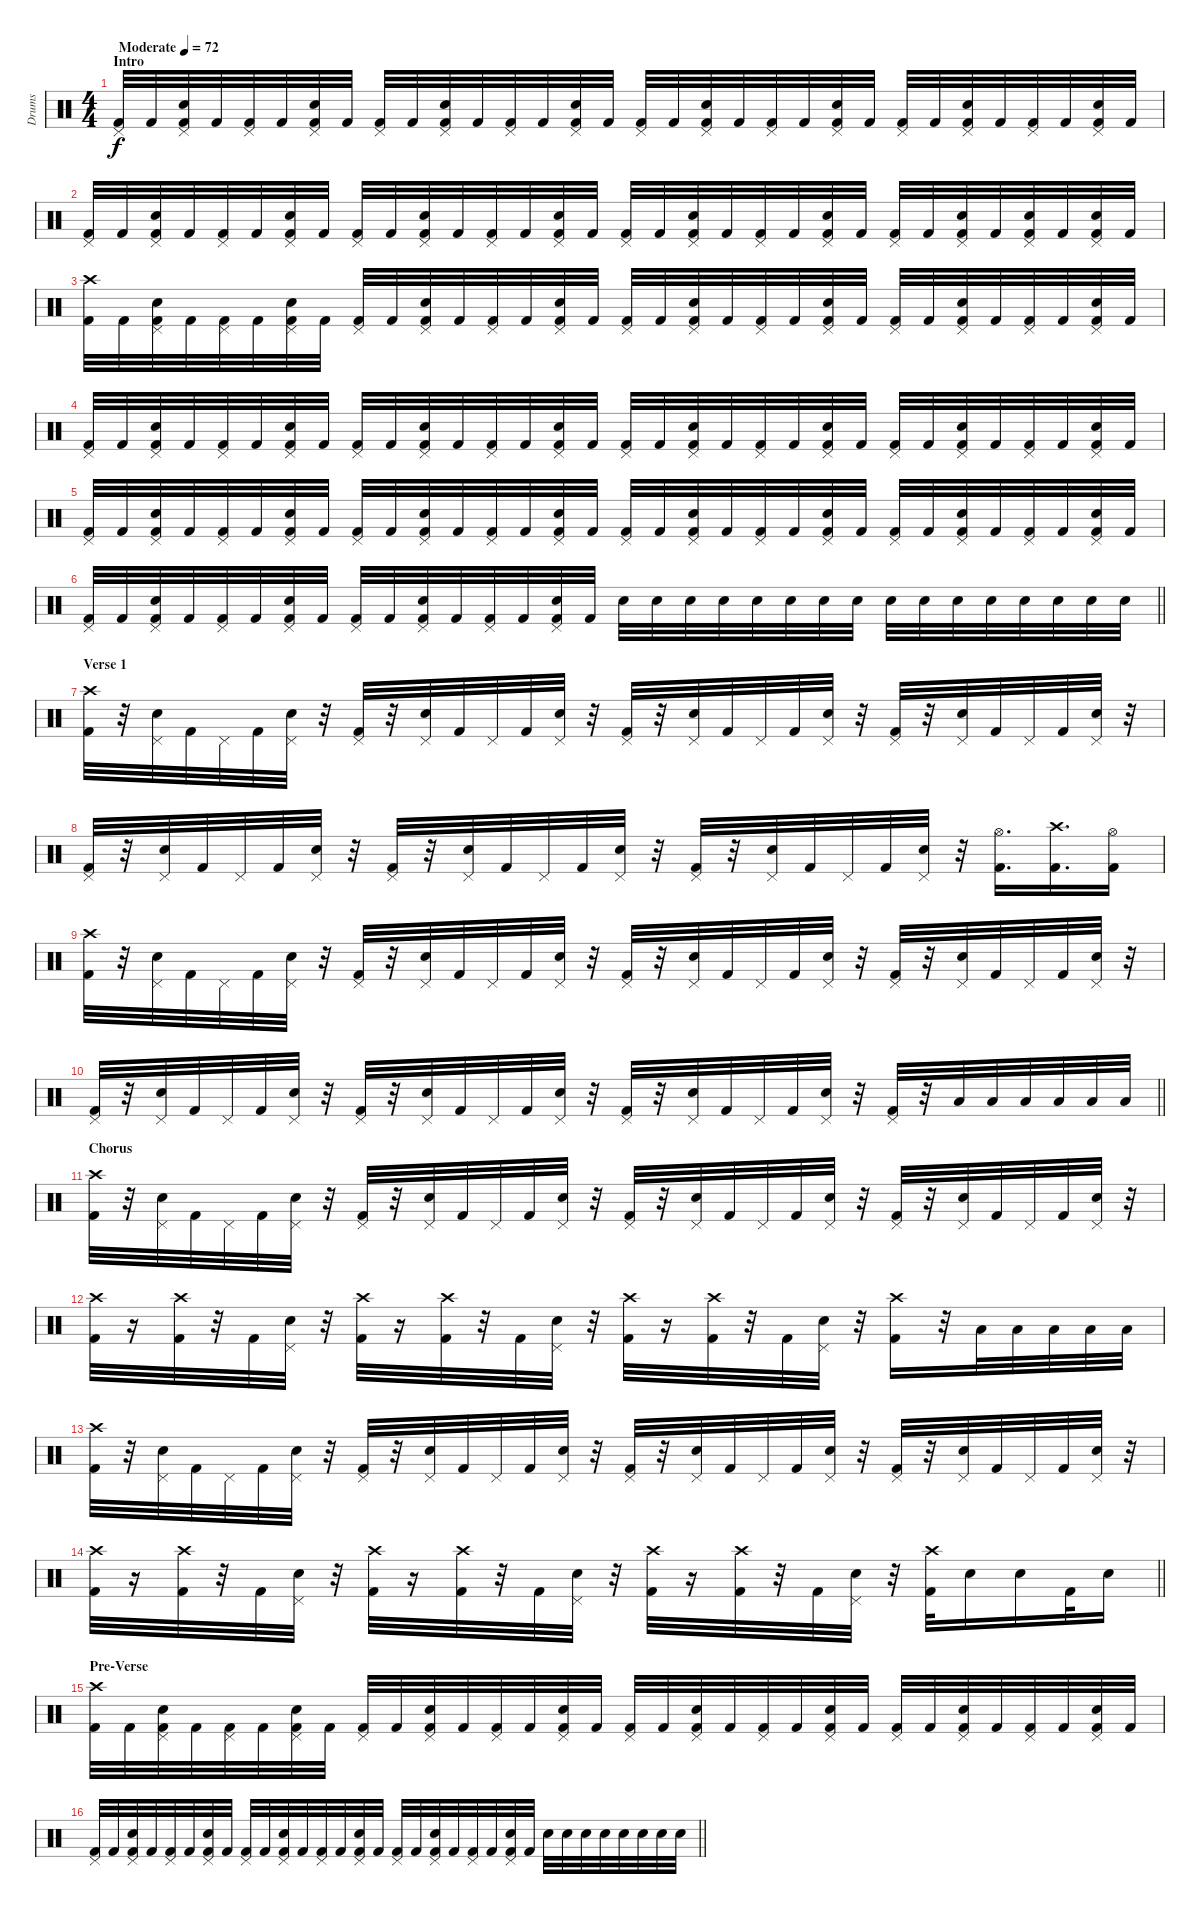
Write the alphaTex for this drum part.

\track ("Drums" "Drums") {instrument percussion}
\staff {score}
\articulation defaults
\ts (4 4)
\section ("" "Intro")
\tempo (72 "Moderate")
\clef neutral
\ks c
("Pedal Hi-Hat (hit)" "Kick (hit) 2").32{dy f} "Kick (hit) 2".32 ("Pedal Hi-Hat (hit)" "Snare (hit) 2" "Kick (hit) 2").32 "Kick (hit) 2".32 ("Pedal Hi-Hat (hit)" "Kick (hit) 2").32 "Kick (hit) 2".32 ("Pedal Hi-Hat (hit)" "Snare (hit) 2" "Kick (hit) 2").32 "Kick (hit) 2".32 ("Pedal Hi-Hat (hit)" "Kick (hit) 2").32 "Kick (hit) 2".32 ("Pedal Hi-Hat (hit)" "Snare (hit) 2" "Kick (hit) 2").32 "Kick (hit) 2".32 ("Pedal Hi-Hat (hit)" "Kick (hit) 2").32 "Kick (hit) 2".32 ("Pedal Hi-Hat (hit)" "Snare (hit) 2" "Kick (hit) 2").32 "Kick (hit) 2".32 ("Pedal Hi-Hat (hit)" "Kick (hit) 2").32 "Kick (hit) 2".32 ("Pedal Hi-Hat (hit)" "Snare (hit) 2" "Kick (hit) 2").32 "Kick (hit) 2".32 ("Pedal Hi-Hat (hit)" "Kick (hit) 2").32 "Kick (hit) 2".32 ("Pedal Hi-Hat (hit)" "Snare (hit) 2" "Kick (hit) 2").32 "Kick (hit) 2".32 ("Pedal Hi-Hat (hit)" "Kick (hit) 2").32 "Kick (hit) 2".32 ("Pedal Hi-Hat (hit)" "Snare (hit) 2" "Kick (hit) 2").32 "Kick (hit) 2".32 ("Pedal Hi-Hat (hit)" "Kick (hit) 2").32 "Kick (hit) 2".32 ("Pedal Hi-Hat (hit)" "Snare (hit) 2" "Kick (hit) 2").32 "Kick (hit) 2".32 |
("Pedal Hi-Hat (hit)" "Kick (hit) 2").32 "Kick (hit) 2".32 ("Pedal Hi-Hat (hit)" "Snare (hit) 2" "Kick (hit) 2").32 "Kick (hit) 2".32 ("Pedal Hi-Hat (hit)" "Kick (hit) 2").32 "Kick (hit) 2".32 ("Pedal Hi-Hat (hit)" "Snare (hit) 2" "Kick (hit) 2").32 "Kick (hit) 2".32 ("Pedal Hi-Hat (hit)" "Kick (hit) 2").32 "Kick (hit) 2".32 ("Pedal Hi-Hat (hit)" "Snare (hit) 2" "Kick (hit) 2").32 "Kick (hit) 2".32 ("Pedal Hi-Hat (hit)" "Kick (hit) 2").32 "Kick (hit) 2".32 ("Pedal Hi-Hat (hit)" "Snare (hit) 2" "Kick (hit) 2").32 "Kick (hit) 2".32 ("Pedal Hi-Hat (hit)" "Kick (hit) 2").32 "Kick (hit) 2".32 ("Pedal Hi-Hat (hit)" "Snare (hit) 2" "Kick (hit) 2").32 "Kick (hit) 2".32 ("Pedal Hi-Hat (hit)" "Kick (hit) 2").32 "Kick (hit) 2".32 ("Pedal Hi-Hat (hit)" "Snare (hit) 2" "Kick (hit) 2").32 "Kick (hit) 2".32 ("Pedal Hi-Hat (hit)" "Kick (hit) 2").32 "Kick (hit) 2".32 ("Pedal Hi-Hat (hit)" "Snare (hit) 2" "Kick (hit) 2").32 "Kick (hit) 2".32 ("Pedal Hi-Hat (hit)" "Snare (hit) 2" "Kick (hit) 2").32 "Kick (hit) 2".32 ("Pedal Hi-Hat (hit)" "Snare (hit) 2" "Kick (hit) 2").32 "Kick (hit) 2".32 |
("Crash high (hit)" "Kick (hit) 2").32 "Kick (hit) 2".32 ("Pedal Hi-Hat (hit)" "Snare (hit) 2" "Kick (hit) 2").32 "Kick (hit) 2".32 ("Pedal Hi-Hat (hit)" "Kick (hit) 2").32 "Kick (hit) 2".32 ("Pedal Hi-Hat (hit)" "Snare (hit) 2" "Kick (hit) 2").32 "Kick (hit) 2".32 ("Pedal Hi-Hat (hit)" "Kick (hit) 2").32 "Kick (hit) 2".32 ("Pedal Hi-Hat (hit)" "Snare (hit) 2" "Kick (hit) 2").32 "Kick (hit) 2".32 ("Pedal Hi-Hat (hit)" "Kick (hit) 2").32 "Kick (hit) 2".32 ("Pedal Hi-Hat (hit)" "Snare (hit) 2" "Kick (hit) 2").32 "Kick (hit) 2".32 ("Pedal Hi-Hat (hit)" "Kick (hit) 2").32 "Kick (hit) 2".32 ("Pedal Hi-Hat (hit)" "Snare (hit) 2" "Kick (hit) 2").32 "Kick (hit) 2".32 ("Pedal Hi-Hat (hit)" "Kick (hit) 2").32 "Kick (hit) 2".32 ("Pedal Hi-Hat (hit)" "Snare (hit) 2" "Kick (hit) 2").32 "Kick (hit) 2".32 ("Pedal Hi-Hat (hit)" "Kick (hit) 2").32 "Kick (hit) 2".32 ("Pedal Hi-Hat (hit)" "Snare (hit) 2" "Kick (hit) 2").32 "Kick (hit) 2".32 ("Pedal Hi-Hat (hit)" "Kick (hit) 2").32 "Kick (hit) 2".32 ("Pedal Hi-Hat (hit)" "Snare (hit) 2" "Kick (hit) 2").32 "Kick (hit) 2".32 |
("Pedal Hi-Hat (hit)" "Kick (hit) 2").32 "Kick (hit) 2".32 ("Pedal Hi-Hat (hit)" "Snare (hit) 2" "Kick (hit) 2").32 "Kick (hit) 2".32 ("Pedal Hi-Hat (hit)" "Kick (hit) 2").32 "Kick (hit) 2".32 ("Pedal Hi-Hat (hit)" "Snare (hit) 2" "Kick (hit) 2").32 "Kick (hit) 2".32 ("Pedal Hi-Hat (hit)" "Kick (hit) 2").32 "Kick (hit) 2".32 ("Pedal Hi-Hat (hit)" "Snare (hit) 2" "Kick (hit) 2").32 "Kick (hit) 2".32 ("Pedal Hi-Hat (hit)" "Kick (hit) 2").32 "Kick (hit) 2".32 ("Pedal Hi-Hat (hit)" "Snare (hit) 2" "Kick (hit) 2").32 "Kick (hit) 2".32 ("Pedal Hi-Hat (hit)" "Kick (hit) 2").32 "Kick (hit) 2".32 ("Pedal Hi-Hat (hit)" "Snare (hit) 2" "Kick (hit) 2").32 "Kick (hit) 2".32 ("Pedal Hi-Hat (hit)" "Kick (hit) 2").32 "Kick (hit) 2".32 ("Pedal Hi-Hat (hit)" "Snare (hit) 2" "Kick (hit) 2").32 "Kick (hit) 2".32 ("Pedal Hi-Hat (hit)" "Kick (hit) 2").32 "Kick (hit) 2".32 ("Pedal Hi-Hat (hit)" "Snare (hit) 2" "Kick (hit) 2").32 "Kick (hit) 2".32 ("Pedal Hi-Hat (hit)" "Kick (hit) 2").32 "Kick (hit) 2".32 ("Pedal Hi-Hat (hit)" "Snare (hit) 2" "Kick (hit) 2").32 "Kick (hit) 2".32 |
("Pedal Hi-Hat (hit)" "Kick (hit) 2").32 "Kick (hit) 2".32 ("Pedal Hi-Hat (hit)" "Snare (hit) 2" "Kick (hit) 2").32 "Kick (hit) 2".32 ("Pedal Hi-Hat (hit)" "Kick (hit) 2").32 "Kick (hit) 2".32 ("Pedal Hi-Hat (hit)" "Snare (hit) 2" "Kick (hit) 2").32 "Kick (hit) 2".32 ("Pedal Hi-Hat (hit)" "Kick (hit) 2").32 "Kick (hit) 2".32 ("Pedal Hi-Hat (hit)" "Snare (hit) 2" "Kick (hit) 2").32 "Kick (hit) 2".32 ("Pedal Hi-Hat (hit)" "Kick (hit) 2").32 "Kick (hit) 2".32 ("Pedal Hi-Hat (hit)" "Snare (hit) 2" "Kick (hit) 2").32 "Kick (hit) 2".32 ("Pedal Hi-Hat (hit)" "Kick (hit) 2").32 "Kick (hit) 2".32 ("Pedal Hi-Hat (hit)" "Snare (hit) 2" "Kick (hit) 2").32 "Kick (hit) 2".32 ("Pedal Hi-Hat (hit)" "Kick (hit) 2").32 "Kick (hit) 2".32 ("Pedal Hi-Hat (hit)" "Snare (hit) 2" "Kick (hit) 2").32 "Kick (hit) 2".32 ("Pedal Hi-Hat (hit)" "Kick (hit) 2").32 "Kick (hit) 2".32 ("Pedal Hi-Hat (hit)" "Snare (hit) 2" "Kick (hit) 2").32 "Kick (hit) 2".32 ("Pedal Hi-Hat (hit)" "Kick (hit) 2").32 "Kick (hit) 2".32 ("Pedal Hi-Hat (hit)" "Snare (hit) 2" "Kick (hit) 2").32 "Kick (hit) 2".32 |
\barLineRight lightlight
("Pedal Hi-Hat (hit)" "Kick (hit) 2").32 "Kick (hit) 2".32 ("Pedal Hi-Hat (hit)" "Snare (hit) 2" "Kick (hit) 2").32 "Kick (hit) 2".32 ("Pedal Hi-Hat (hit)" "Kick (hit) 2").32 "Kick (hit) 2".32 ("Pedal Hi-Hat (hit)" "Snare (hit) 2" "Kick (hit) 2").32 "Kick (hit) 2".32 ("Pedal Hi-Hat (hit)" "Kick (hit) 2").32 "Kick (hit) 2".32 ("Pedal Hi-Hat (hit)" "Snare (hit) 2" "Kick (hit) 2").32 "Kick (hit) 2".32 ("Pedal Hi-Hat (hit)" "Kick (hit) 2").32 "Kick (hit) 2".32 ("Pedal Hi-Hat (hit)" "Snare (hit) 2" "Kick (hit) 2").32 "Kick (hit) 2".32 "Snare (hit) 2".32 "Snare (hit) 2".32 "Snare (hit) 2".32 "Snare (hit) 2".32 "Snare (hit) 2".32 "Snare (hit) 2".32 "Snare (hit) 2".32 "Snare (hit) 2".32 "Snare (hit) 2".32 "Snare (hit) 2".32 "Snare (hit) 2".32 "Snare (hit) 2".32 "Snare (hit) 2".32 "Snare (hit) 2".32 "Snare (hit) 2".32 "Snare (hit) 2".32 |
\section ("" "Verse 1")
("Crash high (hit)" "Kick (hit) 2").32 r.32 ("Pedal Hi-Hat (hit)" "Snare (hit) 2").32 "Kick (hit) 2".32 "Pedal Hi-Hat (hit)".32 "Kick (hit) 2".32 ("Pedal Hi-Hat (hit)" "Snare (hit) 2").32 r.32 ("Pedal Hi-Hat (hit)" "Kick (hit) 2").32 r.32 ("Pedal Hi-Hat (hit)" "Snare (hit) 2").32 "Kick (hit) 2".32 "Pedal Hi-Hat (hit)".32 "Kick (hit) 2".32 ("Pedal Hi-Hat (hit)" "Snare (hit) 2").32 r.32 ("Pedal Hi-Hat (hit)" "Kick (hit) 2").32 r.32 ("Pedal Hi-Hat (hit)" "Snare (hit) 2").32 "Kick (hit) 2".32 "Pedal Hi-Hat (hit)".32 "Kick (hit) 2".32 ("Pedal Hi-Hat (hit)" "Snare (hit) 2").32 r.32 ("Pedal Hi-Hat (hit)" "Kick (hit) 2").32 r.32 ("Pedal Hi-Hat (hit)" "Snare (hit) 2").32 "Kick (hit) 2".32 "Pedal Hi-Hat (hit)".32 "Kick (hit) 2".32 ("Pedal Hi-Hat (hit)" "Snare (hit) 2").32 r.32 |
("Pedal Hi-Hat (hit)" "Kick (hit) 2").32 r.32 ("Pedal Hi-Hat (hit)" "Snare (hit) 2").32 "Kick (hit) 2".32 "Pedal Hi-Hat (hit)".32 "Kick (hit) 2".32 ("Pedal Hi-Hat (hit)" "Snare (hit) 2").32 r.32 ("Pedal Hi-Hat (hit)" "Kick (hit) 2").32 r.32 ("Pedal Hi-Hat (hit)" "Snare (hit) 2").32 "Kick (hit) 2".32 "Pedal Hi-Hat (hit)".32 "Kick (hit) 2".32 ("Pedal Hi-Hat (hit)" "Snare (hit) 2").32 r.32 ("Pedal Hi-Hat (hit)" "Kick (hit) 2").32 r.32 ("Pedal Hi-Hat (hit)" "Snare (hit) 2").32 "Kick (hit) 2".32 "Pedal Hi-Hat (hit)".32 "Kick (hit) 2".32 ("Pedal Hi-Hat (hit)" "Snare (hit) 2").32 r.32 ("Hi-Hat (open)" "Kick (hit) 2").16{d} ("Crash high (hit)" "Kick (hit) 2").16{d} ("Hi-Hat (open)" "Kick (hit) 2").16 |
("Crash high (hit)" "Kick (hit) 2").32 r.32 ("Pedal Hi-Hat (hit)" "Snare (hit) 2").32 "Kick (hit) 2".32 "Pedal Hi-Hat (hit)".32 "Kick (hit) 2".32 ("Pedal Hi-Hat (hit)" "Snare (hit) 2").32 r.32 ("Pedal Hi-Hat (hit)" "Kick (hit) 2").32 r.32 ("Pedal Hi-Hat (hit)" "Snare (hit) 2").32 "Kick (hit) 2".32 "Pedal Hi-Hat (hit)".32 "Kick (hit) 2".32 ("Pedal Hi-Hat (hit)" "Snare (hit) 2").32 r.32 ("Pedal Hi-Hat (hit)" "Kick (hit) 2").32 r.32 ("Pedal Hi-Hat (hit)" "Snare (hit) 2").32 "Kick (hit) 2".32 "Pedal Hi-Hat (hit)".32 "Kick (hit) 2".32 ("Pedal Hi-Hat (hit)" "Snare (hit) 2").32 r.32 ("Pedal Hi-Hat (hit)" "Kick (hit) 2").32 r.32 ("Pedal Hi-Hat (hit)" "Snare (hit) 2").32 "Kick (hit) 2".32 "Pedal Hi-Hat (hit)".32 "Kick (hit) 2".32 ("Pedal Hi-Hat (hit)" "Snare (hit) 2").32 r.32 |
\barLineRight lightlight
("Pedal Hi-Hat (hit)" "Kick (hit) 2").32 r.32 ("Pedal Hi-Hat (hit)" "Snare (hit) 2").32 "Kick (hit) 2".32 "Pedal Hi-Hat (hit)".32 "Kick (hit) 2".32 ("Pedal Hi-Hat (hit)" "Snare (hit) 2").32 r.32 ("Pedal Hi-Hat (hit)" "Kick (hit) 2").32 r.32 ("Pedal Hi-Hat (hit)" "Snare (hit) 2").32 "Kick (hit) 2".32 "Pedal Hi-Hat (hit)".32 "Kick (hit) 2".32 ("Pedal Hi-Hat (hit)" "Snare (hit) 2").32 r.32 ("Pedal Hi-Hat (hit)" "Kick (hit) 2").32 r.32 ("Pedal Hi-Hat (hit)" "Snare (hit) 2").32 "Kick (hit) 2".32 "Pedal Hi-Hat (hit)".32 "Kick (hit) 2".32 ("Pedal Hi-Hat (hit)" "Snare (hit) 2").32 r.32 ("Pedal Hi-Hat (hit)" "Kick (hit) 2").32 r.32 "Low Tom (hit)".32 "Low Tom (hit)".32 "Low Tom (hit)".32 "Low Tom (hit)".32 "Low Tom (hit)".32 "Low Tom (hit)".32 |
\section ("" "Chorus")
("Crash high (hit)" "Kick (hit) 2").32 r.32 ("Pedal Hi-Hat (hit)" "Snare (hit) 2").32 "Kick (hit) 2".32 "Pedal Hi-Hat (hit)".32 "Kick (hit) 2".32 ("Pedal Hi-Hat (hit)" "Snare (hit) 2").32 r.32 ("Pedal Hi-Hat (hit)" "Kick (hit) 2").32 r.32 ("Pedal Hi-Hat (hit)" "Snare (hit) 2").32 "Kick (hit) 2".32 "Pedal Hi-Hat (hit)".32 "Kick (hit) 2".32 ("Pedal Hi-Hat (hit)" "Snare (hit) 2").32 r.32 ("Pedal Hi-Hat (hit)" "Kick (hit) 2").32 r.32 ("Pedal Hi-Hat (hit)" "Snare (hit) 2").32 "Kick (hit) 2".32 "Pedal Hi-Hat (hit)".32 "Kick (hit) 2".32 ("Pedal Hi-Hat (hit)" "Snare (hit) 2").32 r.32 ("Pedal Hi-Hat (hit)" "Kick (hit) 2").32 r.32 ("Pedal Hi-Hat (hit)" "Snare (hit) 2").32 "Kick (hit) 2".32 "Pedal Hi-Hat (hit)".32 "Kick (hit) 2".32 ("Pedal Hi-Hat (hit)" "Snare (hit) 2").32 r.32 |
("Crash high (hit)" "Kick (hit) 2").32 r.16 ("Crash high (hit)" "Kick (hit) 2").32 r.32 "Kick (hit) 2".32 ("Pedal Hi-Hat (hit)" "Snare (hit) 2").32 r.32 ("Crash high (hit)" "Kick (hit) 2").32 r.16 ("Crash high (hit)" "Kick (hit) 2").32 r.32 "Kick (hit) 2".32 ("Pedal Hi-Hat (hit)" "Snare (hit) 2").32 r.32 ("Crash high (hit)" "Kick (hit) 2").32 r.16 ("Crash high (hit)" "Kick (hit) 2").32 r.32 "Kick (hit) 2".32 ("Pedal Hi-Hat (hit)" "Snare (hit) 2").32 r.32 ("Crash high (hit)" "Kick (hit) 2").16 r.32 "Low Tom (hit)".32 "Low Tom (hit)".32 "Low Tom (hit)".32 "Low Tom (hit)".32 "Low Tom (hit)".32 |
("Crash high (hit)" "Kick (hit) 2").32 r.32 ("Pedal Hi-Hat (hit)" "Snare (hit) 2").32 "Kick (hit) 2".32 "Pedal Hi-Hat (hit)".32 "Kick (hit) 2".32 ("Pedal Hi-Hat (hit)" "Snare (hit) 2").32 r.32 ("Pedal Hi-Hat (hit)" "Kick (hit) 2").32 r.32 ("Pedal Hi-Hat (hit)" "Snare (hit) 2").32 "Kick (hit) 2".32 "Pedal Hi-Hat (hit)".32 "Kick (hit) 2".32 ("Pedal Hi-Hat (hit)" "Snare (hit) 2").32 r.32 ("Pedal Hi-Hat (hit)" "Kick (hit) 2").32 r.32 ("Pedal Hi-Hat (hit)" "Snare (hit) 2").32 "Kick (hit) 2".32 "Pedal Hi-Hat (hit)".32 "Kick (hit) 2".32 ("Pedal Hi-Hat (hit)" "Snare (hit) 2").32 r.32 ("Pedal Hi-Hat (hit)" "Kick (hit) 2").32 r.32 ("Pedal Hi-Hat (hit)" "Snare (hit) 2").32 "Kick (hit) 2".32 "Pedal Hi-Hat (hit)".32 "Kick (hit) 2".32 ("Pedal Hi-Hat (hit)" "Snare (hit) 2").32 r.32 |
\barLineRight lightlight
("Crash high (hit)" "Kick (hit) 2").32 r.16 ("Crash high (hit)" "Kick (hit) 2").32 r.32 "Kick (hit) 2".32 ("Pedal Hi-Hat (hit)" "Snare (hit) 2").32 r.32 ("Crash high (hit)" "Kick (hit) 2").32 r.16 ("Crash high (hit)" "Kick (hit) 2").32 r.32 "Kick (hit) 2".32 ("Pedal Hi-Hat (hit)" "Snare (hit) 2").32 r.32 ("Crash high (hit)" "Kick (hit) 2").32 r.16 ("Crash high (hit)" "Kick (hit) 2").32 r.32 "Kick (hit) 2".32 ("Pedal Hi-Hat (hit)" "Snare (hit) 2").32 r.32 ("Crash high (hit)" "Kick (hit) 2").32 "Snare (hit) 2".16 "Snare (hit) 2".16 "Kick (hit) 2".32 "Snare (hit) 2".16 |
\section ("" "Pre-Verse")
("Crash high (hit)" "Kick (hit) 2").32 "Kick (hit) 2".32 ("Pedal Hi-Hat (hit)" "Snare (hit) 2" "Kick (hit) 2").32 "Kick (hit) 2".32 ("Pedal Hi-Hat (hit)" "Kick (hit) 2").32 "Kick (hit) 2".32 ("Pedal Hi-Hat (hit)" "Snare (hit) 2" "Kick (hit) 2").32 "Kick (hit) 2".32 ("Pedal Hi-Hat (hit)" "Kick (hit) 2").32 "Kick (hit) 2".32 ("Pedal Hi-Hat (hit)" "Snare (hit) 2" "Kick (hit) 2").32 "Kick (hit) 2".32 ("Pedal Hi-Hat (hit)" "Kick (hit) 2").32 "Kick (hit) 2".32 ("Pedal Hi-Hat (hit)" "Snare (hit) 2" "Kick (hit) 2").32 "Kick (hit) 2".32 ("Pedal Hi-Hat (hit)" "Kick (hit) 2").32 "Kick (hit) 2".32 ("Pedal Hi-Hat (hit)" "Snare (hit) 2" "Kick (hit) 2").32 "Kick (hit) 2".32 ("Pedal Hi-Hat (hit)" "Kick (hit) 2").32 "Kick (hit) 2".32 ("Pedal Hi-Hat (hit)" "Snare (hit) 2" "Kick (hit) 2").32 "Kick (hit) 2".32 ("Pedal Hi-Hat (hit)" "Kick (hit) 2").32 "Kick (hit) 2".32 ("Pedal Hi-Hat (hit)" "Snare (hit) 2" "Kick (hit) 2").32 "Kick (hit) 2".32 ("Pedal Hi-Hat (hit)" "Kick (hit) 2").32 "Kick (hit) 2".32 ("Pedal Hi-Hat (hit)" "Snare (hit) 2" "Kick (hit) 2").32 "Kick (hit) 2".32 |
\barLineRight lightlight
("Pedal Hi-Hat (hit)" "Kick (hit) 2").32 "Kick (hit) 2".32 ("Pedal Hi-Hat (hit)" "Snare (hit) 2" "Kick (hit) 2").32 "Kick (hit) 2".32 ("Pedal Hi-Hat (hit)" "Kick (hit) 2").32 "Kick (hit) 2".32 ("Pedal Hi-Hat (hit)" "Snare (hit) 2" "Kick (hit) 2").32 "Kick (hit) 2".32 ("Pedal Hi-Hat (hit)" "Kick (hit) 2").32 "Kick (hit) 2".32 ("Pedal Hi-Hat (hit)" "Snare (hit) 2" "Kick (hit) 2").32 "Kick (hit) 2".32 ("Pedal Hi-Hat (hit)" "Kick (hit) 2").32 "Kick (hit) 2".32 ("Pedal Hi-Hat (hit)" "Snare (hit) 2" "Kick (hit) 2").32 "Kick (hit) 2".32 ("Pedal Hi-Hat (hit)" "Kick (hit) 2").32 "Kick (hit) 2".32 ("Pedal Hi-Hat (hit)" "Snare (hit) 2" "Kick (hit) 2").32 "Kick (hit) 2".32 ("Pedal Hi-Hat (hit)" "Kick (hit) 2").32 "Kick (hit) 2".32 ("Pedal Hi-Hat (hit)" "Snare (hit) 2" "Kick (hit) 2").32 "Kick (hit) 2".32 "Snare (hit) 2".32 "Snare (hit) 2".32 "Snare (hit) 2".32 "Snare (hit) 2".32 "Snare (hit) 2".32 "Snare (hit) 2".32 "Snare (hit) 2".32 "Snare (hit) 2".32
